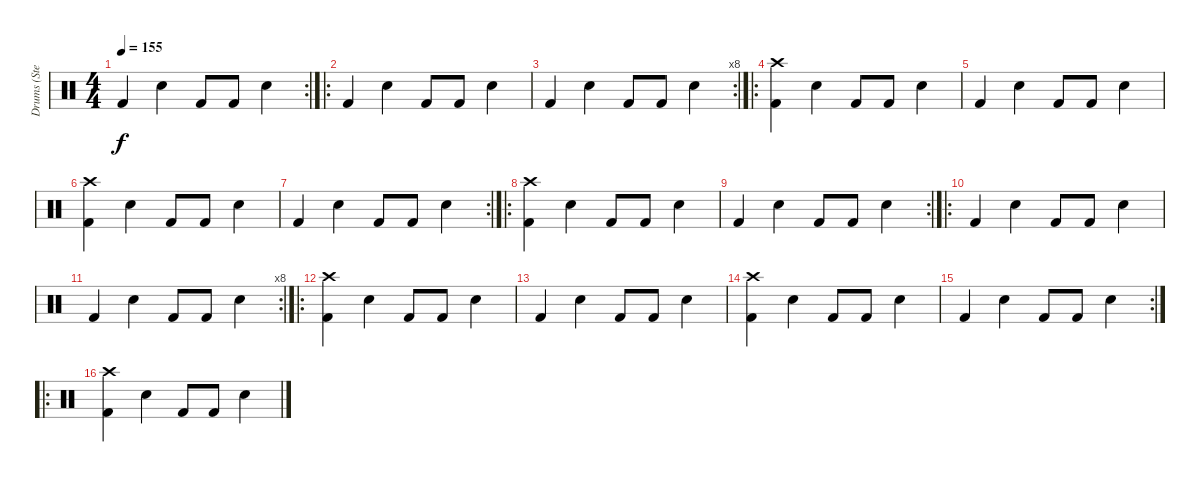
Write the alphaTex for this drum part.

\track ("Drums (Stephen Morris)" "Drums (Ste") {instrument percussion}
\staff {score}
\articulation defaults
\rc 2
\ts (4 4)
\tempo 155
\clef neutral
\ks c "Kick (hit) 2".4{dy f} "Snare (hit) 2".4 "Kick (hit) 2".8 "Kick (hit) 2".8 "Snare (hit) 2".4
|
\ro "Kick (hit) 2".4 "Snare (hit) 2".4 "Kick (hit) 2".8 "Kick (hit) 2".8 "Snare (hit) 2".4
|
\rc 8 "Kick (hit) 2".4 "Snare (hit) 2".4 "Kick (hit) 2".8 "Kick (hit) 2".8 "Snare (hit) 2".4
|
\ro
("Crash high (hit)" "Kick (hit) 2").4 "Snare (hit) 2".4 "Kick (hit) 2".8 "Kick (hit) 2".8 "Snare (hit) 2".4 |
"Kick (hit) 2".4 "Snare (hit) 2".4 "Kick (hit) 2".8 "Kick (hit) 2".8 "Snare (hit) 2".4 |
("Crash high (hit)" "Kick (hit) 2").4 "Snare (hit) 2".4 "Kick (hit) 2".8 "Kick (hit) 2".8 "Snare (hit) 2".4 |
\rc 2 "Kick (hit) 2".4 "Snare (hit) 2".4 "Kick (hit) 2".8 "Kick (hit) 2".8 "Snare (hit) 2".4
|
\ro
("Crash high (hit)" "Kick (hit) 2").4 "Snare (hit) 2".4 "Kick (hit) 2".8 "Kick (hit) 2".8 "Snare (hit) 2".4 |
\rc 2 "Kick (hit) 2".4 "Snare (hit) 2".4 "Kick (hit) 2".8 "Kick (hit) 2".8 "Snare (hit) 2".4
|
\ro "Kick (hit) 2".4 "Snare (hit) 2".4 "Kick (hit) 2".8 "Kick (hit) 2".8 "Snare (hit) 2".4
|
\rc 8 "Kick (hit) 2".4 "Snare (hit) 2".4 "Kick (hit) 2".8 "Kick (hit) 2".8 "Snare (hit) 2".4
|
\ro
("Crash high (hit)" "Kick (hit) 2").4 "Snare (hit) 2".4 "Kick (hit) 2".8 "Kick (hit) 2".8 "Snare (hit) 2".4 |
"Kick (hit) 2".4 "Snare (hit) 2".4 "Kick (hit) 2".8 "Kick (hit) 2".8 "Snare (hit) 2".4 |
("Crash high (hit)" "Kick (hit) 2").4 "Snare (hit) 2".4 "Kick (hit) 2".8 "Kick (hit) 2".8 "Snare (hit) 2".4 |
\rc 2 "Kick (hit) 2".4 "Snare (hit) 2".4 "Kick (hit) 2".8 "Kick (hit) 2".8 "Snare (hit) 2".4
|
\ro
("Crash high (hit)" "Kick (hit) 2").4 "Snare (hit) 2".4 "Kick (hit) 2".8 "Kick (hit) 2".8 "Snare (hit) 2".4
